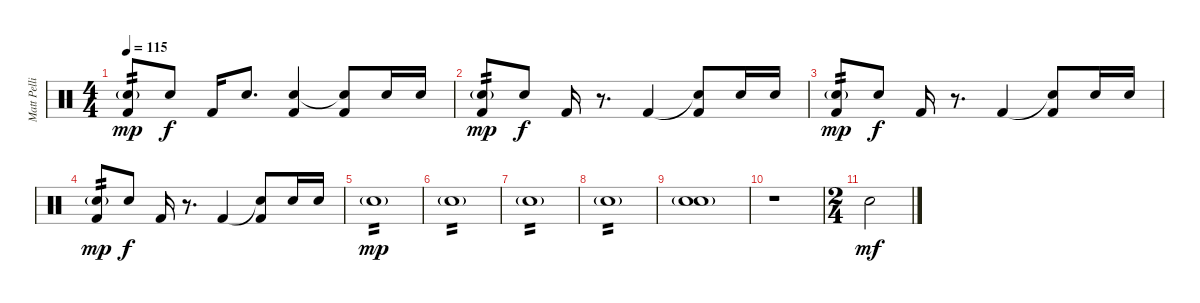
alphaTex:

\track ("Matt Pellissier" "Matt Pelli") {instrument percussion}
\staff {score}
\articulation defaults
\ts (4 4)
\tempo 115
\clef neutral
\ks c
("Snare (hit) 2"{g} "Kick (hit) 2").8{tp 2 dy mp} "Snare (hit) 2".8{dy f} "Kick (hit) 2".16 "Snare (hit) 2".8{d} ("Snare (hit) 2" "Kick (hit) 2").4 ("Snare (hit)"{t} "Kick (hit) 2").8 "Snare (hit) 2".16 "Snare (hit) 2".16 |
("Snare (hit) 2"{g} "Kick (hit) 2").8{tp 2 dy mp} "Snare (hit) 2".8{dy f} "Kick (hit) 2".16 r.8{d} "Kick (hit) 2".4 ("Snare (hit)"{t} "Kick (hit) 2").8 "Snare (hit) 2".16 "Snare (hit) 2".16 |
("Snare (hit) 2"{g} "Kick (hit) 2").8{tp 2 dy mp} "Snare (hit) 2".8{dy f} "Kick (hit) 2".16 r.8{d} "Kick (hit) 2".4 ("Snare (hit)"{t} "Kick (hit) 2").8 "Snare (hit) 2".16 "Snare (hit) 2".16 |
("Snare (hit) 2"{g} "Kick (hit) 2").8{tp 2 dy mp} "Snare (hit) 2".8{dy f} "Kick (hit) 2".16 r.8{d} "Kick (hit) 2".4 ("Snare (hit)"{t} "Kick (hit) 2").8 "Snare (hit) 2".16 "Snare (hit) 2".16 |
"Snare (hit) 2"{g}.1{tp 2 dy mp volume 15} |
"Snare (hit) 2"{g}.1{tp 2} |
"Snare (hit) 2"{g}.1{tp 2} |
"Snare (hit) 2"{g}.1{tp 2} |
("Snare (hit) 2" "Electric Snare (hit)"{g}).1{volume 14} |
r.1 |
\ts (2 4)
"Snare (hit)".2{dy mf}
